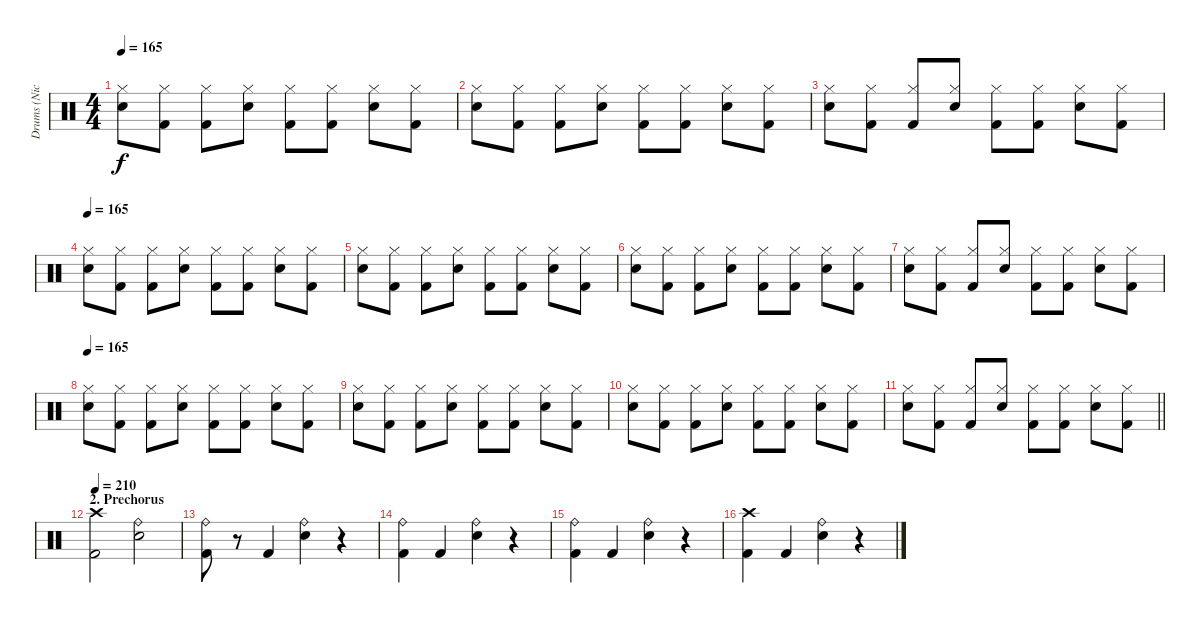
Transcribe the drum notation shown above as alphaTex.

\track ("Drums (Nicko McBrain)" "Drums (Nic") {instrument percussion}
\staff {score}
\articulation defaults
\ts (4 4)
\tempo 165
\clef neutral
\ks c
("Hi-Hat (closed)" "Electric Snare (hit)").8{dy f} ("Hi-Hat (closed)" "Kick (hit) 2").8 ("Hi-Hat (closed)" "Kick (hit) 2").8 ("Hi-Hat (closed)" "Electric Snare (hit)").8 ("Hi-Hat (closed)" "Kick (hit) 2").8 ("Hi-Hat (closed)" "Kick (hit) 2").8 ("Hi-Hat (closed)" "Electric Snare (hit)").8 ("Hi-Hat (closed)" "Kick (hit) 2").8 |
("Hi-Hat (closed)" "Electric Snare (hit)").8 ("Hi-Hat (closed)" "Kick (hit) 2").8 ("Hi-Hat (closed)" "Kick (hit) 2").8 ("Hi-Hat (closed)" "Electric Snare (hit)").8 ("Hi-Hat (closed)" "Kick (hit) 2").8 ("Hi-Hat (closed)" "Kick (hit) 2").8 ("Hi-Hat (closed)" "Electric Snare (hit)").8 ("Hi-Hat (closed)" "Kick (hit) 2").8 |
("Hi-Hat (closed)" "Electric Snare (hit)").8 ("Hi-Hat (closed)" "Kick (hit) 2").8 ("Hi-Hat (closed)" "Kick (hit) 2").8{beam Up} ("Hi-Hat (closed)" "Electric Snare (hit)").8{beam Up} ("Hi-Hat (closed)" "Kick (hit) 2").8 ("Hi-Hat (closed)" "Kick (hit) 2").8 ("Hi-Hat (closed)" "Electric Snare (hit)").8 ("Hi-Hat (closed)" "Kick (hit) 2").8 |
\tempo 165
("Hi-Hat (closed)" "Electric Snare (hit)").8 ("Hi-Hat (closed)" "Kick (hit) 2").8 ("Hi-Hat (closed)" "Kick (hit) 2").8 ("Hi-Hat (closed)" "Electric Snare (hit)").8 ("Hi-Hat (closed)" "Kick (hit) 2").8 ("Hi-Hat (closed)" "Kick (hit) 2").8 ("Hi-Hat (closed)" "Electric Snare (hit)").8 ("Hi-Hat (closed)" "Kick (hit) 2").8 |
("Hi-Hat (closed)" "Electric Snare (hit)").8 ("Hi-Hat (closed)" "Kick (hit) 2").8 ("Hi-Hat (closed)" "Kick (hit) 2").8 ("Hi-Hat (closed)" "Electric Snare (hit)").8 ("Hi-Hat (closed)" "Kick (hit) 2").8 ("Hi-Hat (closed)" "Kick (hit) 2").8 ("Hi-Hat (closed)" "Electric Snare (hit)").8 ("Hi-Hat (closed)" "Kick (hit) 2").8 |
("Hi-Hat (closed)" "Electric Snare (hit)").8 ("Hi-Hat (closed)" "Kick (hit) 2").8 ("Hi-Hat (closed)" "Kick (hit) 2").8 ("Hi-Hat (closed)" "Electric Snare (hit)").8 ("Hi-Hat (closed)" "Kick (hit) 2").8 ("Hi-Hat (closed)" "Kick (hit) 2").8 ("Hi-Hat (closed)" "Electric Snare (hit)").8 ("Hi-Hat (closed)" "Kick (hit) 2").8 |
("Hi-Hat (closed)" "Electric Snare (hit)").8 ("Hi-Hat (closed)" "Kick (hit) 2").8 ("Hi-Hat (closed)" "Kick (hit) 2").8{beam Up} ("Hi-Hat (closed)" "Electric Snare (hit)").8{beam Up} ("Hi-Hat (closed)" "Kick (hit) 2").8 ("Hi-Hat (closed)" "Kick (hit) 2").8 ("Hi-Hat (closed)" "Electric Snare (hit)").8 ("Hi-Hat (closed)" "Kick (hit) 2").8 |
\tempo 165
("Hi-Hat (closed)" "Electric Snare (hit)").8 ("Hi-Hat (closed)" "Kick (hit) 2").8 ("Hi-Hat (closed)" "Kick (hit) 2").8 ("Hi-Hat (closed)" "Electric Snare (hit)").8 ("Hi-Hat (closed)" "Kick (hit) 2").8 ("Hi-Hat (closed)" "Kick (hit) 2").8 ("Hi-Hat (closed)" "Electric Snare (hit)").8 ("Hi-Hat (closed)" "Kick (hit) 2").8 |
("Hi-Hat (closed)" "Electric Snare (hit)").8 ("Hi-Hat (closed)" "Kick (hit) 2").8 ("Hi-Hat (closed)" "Kick (hit) 2").8 ("Hi-Hat (closed)" "Electric Snare (hit)").8 ("Hi-Hat (closed)" "Kick (hit) 2").8 ("Hi-Hat (closed)" "Kick (hit) 2").8 ("Hi-Hat (closed)" "Electric Snare (hit)").8 ("Hi-Hat (closed)" "Kick (hit) 2").8 |
("Hi-Hat (closed)" "Electric Snare (hit)").8 ("Hi-Hat (closed)" "Kick (hit) 2").8 ("Hi-Hat (closed)" "Kick (hit) 2").8 ("Hi-Hat (closed)" "Electric Snare (hit)").8 ("Hi-Hat (closed)" "Kick (hit) 2").8 ("Hi-Hat (closed)" "Kick (hit) 2").8 ("Hi-Hat (closed)" "Electric Snare (hit)").8 ("Hi-Hat (closed)" "Kick (hit) 2").8 |
\barLineRight lightlight
("Hi-Hat (closed)" "Electric Snare (hit)").8 ("Hi-Hat (closed)" "Kick (hit) 2").8 ("Hi-Hat (closed)" "Kick (hit) 2").8{beam Up} ("Hi-Hat (closed)" "Electric Snare (hit)").8{beam Up} ("Hi-Hat (closed)" "Kick (hit) 2").8 ("Hi-Hat (closed)" "Kick (hit) 2").8 ("Hi-Hat (closed)" "Electric Snare (hit)").8 ("Hi-Hat (closed)" "Kick (hit) 2").8 |
\section ("" "2. Prechorus")
\tempo 210
("Crash high (hit)" "Kick (hit) 2").2 ("Ride (bell)" "Electric Snare (hit)").2 |
("Ride (bell)" "Kick (hit) 2").8 r.8 "Kick (hit) 2".4 ("Ride (bell)" "Electric Snare (hit)").4 r.4 |
("Ride (bell)" "Kick (hit) 2").4 "Kick (hit) 2".4 ("Ride (bell)" "Electric Snare (hit)").4 r.4 |
("Ride (bell)" "Kick (hit) 2").4 "Kick (hit) 2".4 ("Ride (bell)" "Electric Snare (hit)").4 r.4 |
("Crash high (hit)" "Kick (hit) 2").4 "Kick (hit) 2".4 ("Ride (bell)" "Electric Snare (hit)").4 r.4
